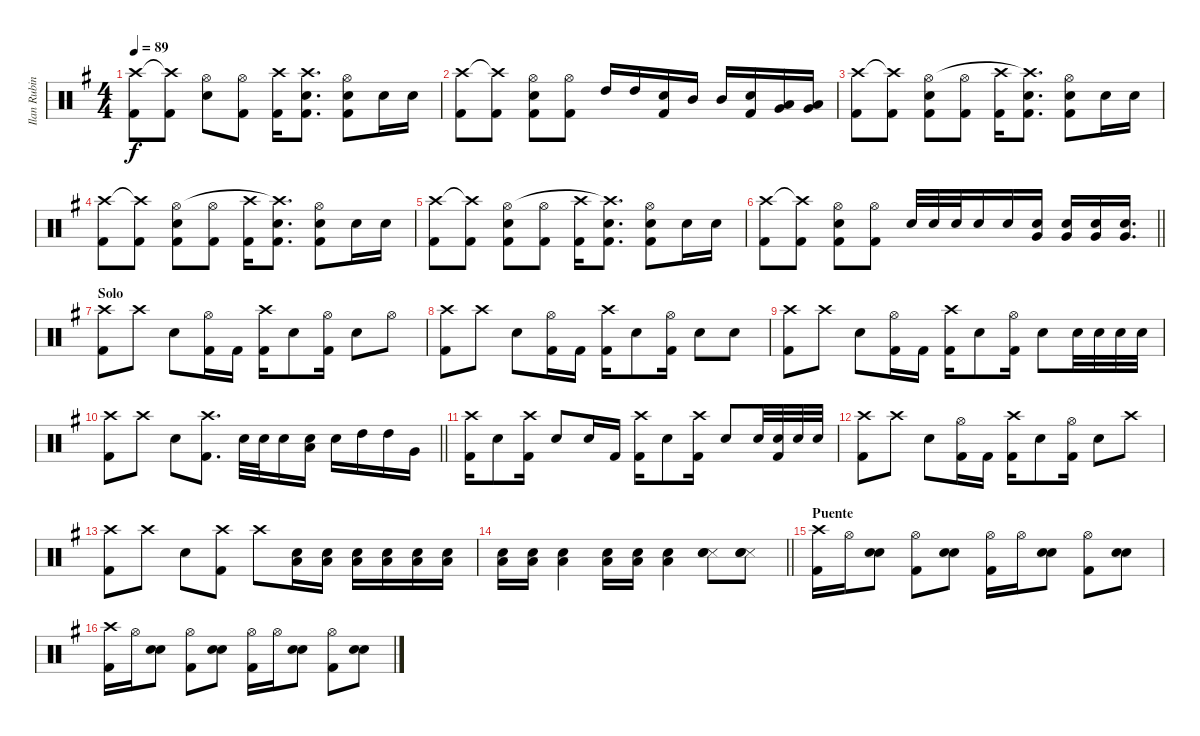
\track ("Ilan Rubin (Batería)" "Ilan Rubin") {instrument percussion}
\staff {score}
\articulation defaults
\ts (4 4)
\tempo 89
\clef neutral
\ks g
("Kick (hit) 2" "Crash high (hit)").8{dy f} ("Kick (hit) 2" "Crash high (hit)"{t}).8 ("Electric Snare (hit)" "Hi-Hat (open)").8 ("Kick (hit) 2" "Hi-Hat (open)").8 ("Kick (hit) 2" "Crash high (hit)").16 ("Kick (hit) 2" "Electric Snare (hit)" "Crash high (hit)"{t}).8{d} ("Kick (hit) 2" "Electric Snare (hit)" "Hi-Hat (open)").8 "Electric Snare (hit)".16 "Electric Snare (hit)".16 |
("Kick (hit) 2" "Crash high (hit)").8 ("Kick (hit) 2" "Crash high (hit)"{t}).8 ("Kick (hit) 2" "Electric Snare (hit)" "Hi-Hat (open)").8 ("Kick (hit) 2" "Hi-Hat (open)").8 "High Tom (hit)".16 "High Tom (hit)".16 ("Kick (hit) 2" "Electric Snare (hit)").16 "Mid Tom (hit)".16 "Mid Tom (hit)".16 ("Kick (hit) 2" "Electric Snare (hit)").16 ("Low Tom (hit)" "Very Low Tom (hit)").16 ("Low Tom (hit)" "Very Low Tom (hit)").16 |
("Kick (hit) 2" "Crash high (hit)").8 ("Kick (hit) 2" "Crash high (hit)"{t}).8 ("Kick (hit) 2" "Electric Snare (hit)" "Hi-Hat (open)").8 ("Kick (hit) 2" "Hi-Hat (open)").8 ("Kick (hit) 2" "Crash high (hit)").16 ("Kick (hit) 2" "Electric Snare (hit)" "Crash high (hit)"{t}).8{d} ("Kick (hit) 2" "Electric Snare (hit)" "Hi-Hat (open)").8 "Electric Snare (hit)".16 "Electric Snare (hit)".16 |
("Kick (hit) 2" "Crash high (hit)").8 ("Kick (hit) 2" "Crash high (hit)"{t}).8 ("Kick (hit) 2" "Electric Snare (hit)" "Hi-Hat (open)").8 ("Kick (hit) 2" "Hi-Hat (open)").8 ("Kick (hit) 2" "Crash high (hit)").16 ("Kick (hit) 2" "Electric Snare (hit)" "Crash high (hit)"{t}).8{d} ("Kick (hit) 2" "Electric Snare (hit)" "Hi-Hat (open)").8 "Electric Snare (hit)".16 "Electric Snare (hit)".16 |
("Kick (hit) 2" "Crash high (hit)").8 ("Kick (hit) 2" "Crash high (hit)"{t}).8 ("Kick (hit) 2" "Electric Snare (hit)" "Hi-Hat (open)").8 ("Kick (hit) 2" "Hi-Hat (open)").8 ("Kick (hit) 2" "Crash high (hit)").16 ("Kick (hit) 2" "Electric Snare (hit)" "Crash high (hit)"{t}).8{d} ("Kick (hit) 2" "Electric Snare (hit)" "Hi-Hat (open)").8 "Electric Snare (hit)".16 "Electric Snare (hit)".16 |
\barLineRight lightlight
("Kick (hit) 2" "Crash high (hit)").8 ("Kick (hit) 2" "Crash high (hit)"{t}).8 ("Kick (hit) 2" "Electric Snare (hit)" "Hi-Hat (open)").8 ("Kick (hit) 2" "Hi-Hat (open)").8 "Electric Snare (hit)".32 "Electric Snare (hit)".32 "Electric Snare (hit)".32 "Electric Snare (hit)".16 "Electric Snare (hit)".16 ("Very Low Tom (hit)" "Electric Snare (hit)").16 ("Very Low Tom (hit)" "Electric Snare (hit)").16 ("Very Low Tom (hit)" "Electric Snare (hit)").16 ("Very Low Tom (hit)" "Electric Snare (hit)").16{d} |
\section ("" "Solo")
("Kick (hit) 2" "Crash high (hit)").8 "Crash high (hit)".8 "Electric Snare (hit)".8 ("Kick (hit) 2" "Hi-Hat (open)").16 "Kick (hit) 2".16 ("Kick (hit) 2" "Crash high (hit)").16 "Electric Snare (hit)".8 ("Kick (hit) 2" "Hi-Hat (open)").16 "Electric Snare (hit)".8 "Hi-Hat (open)".8 |
("Kick (hit) 2" "Crash high (hit)").8 "Crash high (hit)".8 "Electric Snare (hit)".8 ("Kick (hit) 2" "Hi-Hat (open)").16 "Kick (hit) 2".16 ("Kick (hit) 2" "Crash high (hit)").16 "Electric Snare (hit)".8 ("Kick (hit) 2" "Hi-Hat (open)").16 "Electric Snare (hit)".8 "Electric Snare (hit)".8 |
("Kick (hit) 2" "Crash high (hit)").8 "Crash high (hit)".8 "Electric Snare (hit)".8 ("Kick (hit) 2" "Hi-Hat (open)").16 "Kick (hit) 2".16 ("Kick (hit) 2" "Crash high (hit)").16 "Electric Snare (hit)".8 ("Kick (hit) 2" "Hi-Hat (open)").16 "Electric Snare (hit)".8 "Electric Snare (hit)".32 "Electric Snare (hit)".32 "Electric Snare (hit)".32 "Electric Snare (hit)".32 |
\barLineRight lightlight
("Kick (hit) 2" "Crash high (hit)").8 "Crash high (hit)".8 "Electric Snare (hit)".8 ("Kick (hit) 2" "Crash high (hit)").8{d} "Electric Snare (hit)".32 "Electric Snare (hit)".32 "Electric Snare (hit)".16 ("Electric Snare (hit)" "Low Tom (hit)").16 "Electric Snare (hit)".16 "High Tom (hit)".16 "High Tom (hit)".16 "Very Low Tom (hit)".16 |
("Kick (hit) 2" "Crash high (hit)").16 "Electric Snare (hit)".8 ("Kick (hit) 2" "Crash high (hit)").16 "Electric Snare (hit)".8 "Electric Snare (hit)".16 "Kick (hit) 2".16 ("Kick (hit) 2" "Crash high (hit)").16 "Electric Snare (hit)".8 ("Kick (hit) 2" "Crash high (hit)").16 "Electric Snare (hit)".8 "Electric Snare (hit)".32 ("Kick (hit) 2" "Electric Snare (hit)").32 "Electric Snare (hit)".32 "Electric Snare (hit)".32 |
("Kick (hit) 2" "Crash high (hit)").8 "Crash high (hit)".8 "Electric Snare (hit)".8 ("Kick (hit) 2" "Hi-Hat (open)").16 "Kick (hit) 2".16 ("Kick (hit) 2" "Crash high (hit)").16 "Electric Snare (hit)".8 ("Kick (hit) 2" "Hi-Hat (open)").16 "Electric Snare (hit)".8 "Crash high (hit)".8 |
("Kick (hit) 2" "Crash high (hit)").8 "Crash high (hit)".8 "Electric Snare (hit)".8 ("Kick (hit) 2" "Crash high (hit)").8 "Crash high (hit)".8 ("Low Floor Tom (hit)" "Electric Snare (hit)").16 ("Low Floor Tom (hit)" "Electric Snare (hit)").16 ("Low Floor Tom (hit)" "Electric Snare (hit)").16 ("Low Floor Tom (hit)" "Electric Snare (hit)").16 ("Low Floor Tom (hit)" "Electric Snare (hit)").16 ("Low Floor Tom (hit)" "Electric Snare (hit)").16 |
\barLineRight lightlight
("Low Floor Tom (hit)" "Electric Snare (hit)").16 ("Low Floor Tom (hit)" "Electric Snare (hit)").16 ("Low Floor Tom (hit)" "Electric Snare (hit)").4 ("Low Floor Tom (hit)" "Electric Snare (hit)").16 ("Low Floor Tom (hit)" "Electric Snare (hit)").16 ("Low Floor Tom (hit)" "Electric Snare (hit)").4 ("Snare (side stick) 3" "Electric Snare (hit)" "Electric Snare (hit)").8 ("Snare (side stick) 3" "Electric Snare (hit)" "Electric Snare (hit)").8 |
\section ("" "Puente")
("Kick (hit) 2" "Crash high (hit)").16 "Hi-Hat (open)".16 ("Electric Snare (hit)" "Electric Snare (hit)").8 ("Kick (hit) 2" "Hi-Hat (open)").8 ("Electric Snare (hit)" "Electric Snare (hit)").8 ("Kick (hit) 2" "Hi-Hat (open)").16 "Hi-Hat (open)".16 ("Electric Snare (hit)" "Electric Snare (hit)").8 ("Kick (hit) 2" "Hi-Hat (open)").8 ("Electric Snare (hit)" "Electric Snare (hit)").8 |
("Kick (hit) 2" "Crash high (hit)").16 "Hi-Hat (open)".16 ("Electric Snare (hit)" "Electric Snare (hit)").8 ("Kick (hit) 2" "Hi-Hat (open)").8 ("Electric Snare (hit)" "Electric Snare (hit)").8 ("Kick (hit) 2" "Hi-Hat (open)").16 "Hi-Hat (open)".16 ("Electric Snare (hit)" "Electric Snare (hit)").8 ("Kick (hit) 2" "Hi-Hat (open)").8 ("Electric Snare (hit)" "Electric Snare (hit)").8
